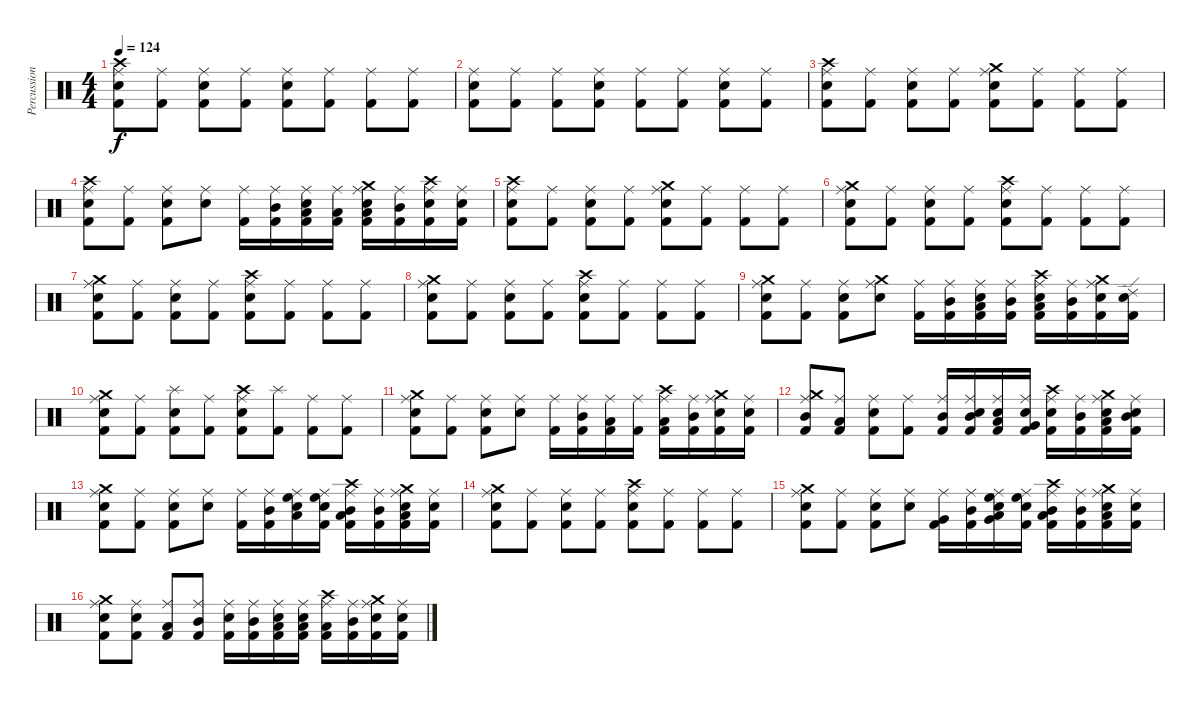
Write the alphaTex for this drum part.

\track ("Percussions" "Percussion") {instrument percussion}
\staff {score}
\articulation defaults
\ts (4 4)
\tempo 124
\clef neutral
\ks c
("Kick (hit) 2" "Electric Snare (hit)" "Crash high (hit)" "Ride (middle)").8{dy f} ("Kick (hit) 2" "Ride (middle)").8 ("Kick (hit) 2" "Electric Snare (hit)" "Ride (middle)").8 ("Kick (hit) 2" "Ride (middle)").8 ("Kick (hit) 2" "Electric Snare (hit)" "Ride (middle)").8 ("Kick (hit) 2" "Ride (middle)").8 ("Kick (hit) 2" "Ride (middle)").8 ("Kick (hit) 2" "Ride (middle)").8 |
("Kick (hit) 2" "Electric Snare (hit)" "Ride (middle)").8 ("Kick (hit) 2" "Ride (middle)").8 ("Kick (hit) 2" "Ride (middle)").8 ("Kick (hit) 2" "Electric Snare (hit)" "Ride (middle)").8 ("Kick (hit) 2" "Ride (middle)").8 ("Kick (hit) 2" "Ride (middle)").8 ("Kick (hit) 2" "Electric Snare (hit)" "Ride (middle)").8 ("Kick (hit) 2" "Ride (middle)").8 |
("Kick (hit) 2" "Electric Snare (hit)" "Crash high (hit)" "Ride (middle)").8 ("Kick (hit) 2" "Ride (middle)").8 ("Kick (hit) 2" "Electric Snare (hit)" "Ride (middle)").8 ("Kick (hit) 2" "Ride (middle)").8 ("Kick (hit) 2" "Electric Snare (hit)" "Crash medium (hit)" "Ride (middle)").8 ("Kick (hit) 2" "Ride (middle)").8 ("Kick (hit) 2" "Ride (middle)").8 ("Kick (hit) 2" "Ride (middle)").8 |
("Kick (hit) 2" "Electric Snare (hit)" "Crash high (hit)" "Ride (middle)").8 ("Kick (hit) 2" "Ride (middle)").8 ("Kick (hit) 2" "Electric Snare (hit)" "Ride (middle)").8 ("Electric Snare (hit)" "Ride (middle)").8 ("Kick (hit) 2" "Ride (middle)").16 ("Kick (hit) 2" "Mid Tom (hit)" "Ride (middle)").16 ("Low Tom (hit)" "Kick (hit) 2" "Electric Snare (hit)" "Ride (middle)").16 ("Kick (hit) 2" "Low Floor Tom (hit)" "Ride (middle)").16 ("Kick (hit) 2" "Low Tom (hit)" "Electric Snare (hit)" "Crash medium (hit)" "Ride (middle)").16 ("Kick (hit) 2" "Mid Tom (hit)" "Ride (middle)").16 ("Kick (hit) 2" "Electric Snare (hit)" "Crash high (hit)" "Ride (middle)").16 ("Kick (hit) 2" "Electric Snare (hit)" "Ride (middle)").16 |
("Kick (hit) 2" "Electric Snare (hit)" "Crash high (hit)" "Ride (middle)").8 ("Kick (hit) 2" "Ride (middle)").8 ("Kick (hit) 2" "Electric Snare (hit)" "Ride (middle)").8 ("Kick (hit) 2" "Ride (middle)").8 ("Kick (hit) 2" "Electric Snare (hit)" "Crash medium (hit)" "Ride (middle)").8 ("Kick (hit) 2" "Ride (middle)").8 ("Kick (hit) 2" "Ride (middle)").8 ("Kick (hit) 2" "Ride (middle)").8 |
("Kick (hit) 2" "Electric Snare (hit)" "Crash medium (hit)" "Ride (middle)").8 ("Kick (hit) 2" "Ride (middle)").8 ("Kick (hit) 2" "Electric Snare (hit)" "Ride (middle)").8 ("Kick (hit) 2" "Ride (middle)").8 ("Kick (hit) 2" "Electric Snare (hit)" "Crash high (hit)" "Ride (middle)").8 ("Kick (hit) 2" "Ride (middle)").8 ("Kick (hit) 2" "Ride (middle)").8 ("Kick (hit) 2" "Ride (middle)").8 |
("Kick (hit) 2" "Electric Snare (hit)" "Crash medium (hit)" "Ride (middle)").8 ("Kick (hit) 2" "Ride (middle)").8 ("Kick (hit) 2" "Electric Snare (hit)" "Ride (middle)").8 ("Kick (hit) 2" "Ride (middle)").8 ("Kick (hit) 2" "Electric Snare (hit)" "Crash high (hit)" "Ride (middle)").8 ("Kick (hit) 2" "Ride (middle)").8 ("Kick (hit) 2" "Ride (middle)").8 ("Kick (hit) 2" "Ride (middle)").8 |
("Kick (hit) 2" "Electric Snare (hit)" "Crash medium (hit)" "Ride (middle)").8 ("Kick (hit) 2" "Ride (middle)").8 ("Kick (hit) 2" "Electric Snare (hit)" "Ride (middle)").8 ("Kick (hit) 2" "Ride (middle)").8 ("Kick (hit) 2" "Electric Snare (hit)" "Crash high (hit)" "Ride (middle)").8 ("Kick (hit) 2" "Ride (middle)").8 ("Kick (hit) 2" "Ride (middle)").8 ("Kick (hit) 2" "Ride (middle)").8 |
("Kick (hit) 2" "Electric Snare (hit)" "Crash medium (hit)" "Ride (middle)").8 ("Kick (hit) 2" "Ride (middle)").8 ("Kick (hit) 2" "Electric Snare (hit)" "Ride (middle)").8 ("Electric Snare (hit)" "Crash medium (hit)" "Ride (middle)").8 ("Kick (hit) 2" "Ride (middle)").16 ("Kick (hit) 2" "Mid Tom (hit)" "Ride (middle)").16 ("Low Tom (hit)" "Kick (hit) 2" "Electric Snare (hit)" "Ride (middle)").16 ("Kick (hit) 2" "Mid Tom (hit)" "Ride (middle)").16 ("Kick (hit) 2" "Low Tom (hit)" "Electric Snare (hit)" "Crash high (hit)" "Ride (middle)").16 ("Kick (hit) 2" "Mid Tom (hit)" "Ride (middle)").16 ("Kick (hit) 2" "Electric Snare (hit)" "Crash medium (hit)" "Ride (middle)").16 ("Kick (hit) 2" "Electric Snare (hit)" "Ride (edge) 2").16 |
("Kick (hit) 2" "Electric Snare (hit)" "Crash medium (hit)" "Ride (middle)").8 ("Kick (hit) 2" "Ride (middle)").8 ("Kick (hit) 2" "Electric Snare (hit)" "Splash (hit)").8 ("Kick (hit) 2" "Ride (middle)").8 ("Kick (hit) 2" "Electric Snare (hit)" "Crash high (hit)" "Ride (middle)").8 ("Kick (hit) 2" "Splash (hit)").8 ("Kick (hit) 2" "Ride (middle)").8 ("Kick (hit) 2" "Ride (middle)").8 |
("Kick (hit) 2" "Electric Snare (hit)" "Crash medium (hit)" "Ride (middle)").8 ("Kick (hit) 2" "Ride (middle)").8 ("Kick (hit) 2" "Electric Snare (hit)" "Ride (middle)").8 ("Electric Snare (hit)" "Ride (middle)").8 ("Kick (hit) 2" "Ride (middle)").16 ("Kick (hit) 2" "Mid Tom (hit)" "Ride (middle)").16 ("Low Tom (hit)" "Kick (hit) 2" "Ride (middle)").16 ("Kick (hit) 2" "Ride (middle)").16 ("Kick (hit) 2" "Low Tom (hit)" "Crash high (hit)" "Ride (middle)").16 ("Kick (hit) 2" "Mid Tom (hit)" "Ride (middle)").16 ("Kick (hit) 2" "Electric Snare (hit)" "Crash medium (hit)" "Ride (middle)").16 ("Kick (hit) 2" "Electric Snare (hit)" "Ride (middle)").16 |
("Kick (hit) 2" "Mid Tom (hit)" "Crash medium (hit)" "Ride (middle)").8 ("Kick (hit) 2" "Low Tom (hit)" "Ride (middle)").8 ("Kick (hit) 2" "Electric Snare (hit)" "Ride (middle)").8 ("Kick (hit) 2" "Ride (middle)").8 ("Kick (hit) 2" "Mid Tom (hit)" "Ride (middle)").16 ("Kick (hit) 2" "Electric Snare (hit)" "Mid Tom (hit)" "Ride (middle)").16 ("Kick (hit) 2" "Low Tom (hit)" "Electric Snare (hit)" "Ride (middle)").16 ("Kick (hit) 2" "Very Low Tom (hit)" "Electric Snare (hit)" "Ride (middle)").16 ("Kick (hit) 2" "Electric Snare (hit)" "Crash high (hit)" "Ride (middle)").16 ("Kick (hit) 2" "Mid Tom (hit)" "Ride (middle)").16 ("Kick (hit) 2" "Low Tom (hit)" "Electric Snare (hit)" "Crash medium (hit)" "Ride (middle)").16 ("Kick (hit) 2" "Mid Tom (hit)" "Electric Snare (hit)" "Ride (middle)").16 |
("Kick (hit) 2" "Electric Snare (hit)" "Crash medium (hit)" "Ride (middle)").8 ("Kick (hit) 2" "Ride (middle)").8 ("Kick (hit) 2" "Electric Snare (hit)" "Ride (middle)").8 ("Electric Snare (hit)" "Ride (middle)").8 ("Kick (hit) 2" "Ride (middle)").16 ("Kick (hit) 2" "Mid Tom (hit)" "Ride (middle)").16 ("Low Tom (hit)" "High Floor Tom (hit)" "Electric Snare (hit)" "Ride (middle)").16 ("Kick (hit) 2" "High Floor Tom (hit)" "Electric Snare (hit)" "Ride (middle)").16 ("Kick (hit) 2" "Low Tom (hit)" "Mid Tom (hit)" "Crash high (hit)" "Ride (middle)").16 ("Kick (hit) 2" "Mid Tom (hit)" "Ride (middle)").16 ("Kick (hit) 2" "Low Tom (hit)" "Electric Snare (hit)" "Crash medium (hit)" "Ride (middle)").16 ("Kick (hit) 2" "Electric Snare (hit)" "Ride (middle)").16 |
("Kick (hit) 2" "Electric Snare (hit)" "Crash medium (hit)" "Ride (middle)").8 ("Kick (hit) 2" "Ride (middle)").8 ("Kick (hit) 2" "Electric Snare (hit)" "Ride (middle)").8 ("Kick (hit) 2" "Ride (middle)").8 ("Kick (hit) 2" "Electric Snare (hit)" "Crash high (hit)" "Ride (middle)").8 ("Kick (hit) 2" "Ride (middle)").8 ("Kick (hit) 2" "Ride (middle)").8 ("Kick (hit) 2" "Ride (middle)").8 |
("Kick (hit) 2" "Electric Snare (hit)" "Crash medium (hit)" "Ride (middle)").8 ("Kick (hit) 2" "Ride (middle)").8 ("Kick (hit) 2" "Electric Snare (hit)" "Ride (middle)").8 ("Electric Snare (hit)" "Ride (middle)").8 ("Very Low Tom (hit)" "Kick (hit) 2" "Ride (middle)").16 ("Kick (hit) 2" "Mid Tom (hit)" "Ride (middle)").16 ("Low Tom (hit)" "High Floor Tom (hit)" "Very Low Tom (hit)" "Electric Snare (hit)" "Ride (middle)").16 ("Kick (hit) 2" "High Floor Tom (hit)" "Electric Snare (hit)" "Ride (middle)").16 ("Kick (hit) 2" "Low Tom (hit)" "Mid Tom (hit)" "Crash high (hit)" "Ride (middle)").16 ("Kick (hit) 2" "Mid Tom (hit)" "Ride (middle)").16 ("Kick (hit) 2" "Low Tom (hit)" "Electric Snare (hit)" "Crash medium (hit)" "Ride (middle)").16 ("Kick (hit) 2" "Electric Snare (hit)" "Ride (middle)").16 |
("Kick (hit) 2" "Electric Snare (hit)" "Crash medium (hit)" "Ride (middle)").8 ("Kick (hit) 2" "Electric Snare (hit)" "Ride (middle)").8 ("Kick (hit) 2" "Low Tom (hit)" "Ride (middle)").8 ("Kick (hit) 2" "Mid Tom (hit)" "Ride (middle)").8 ("Kick (hit) 2" "Electric Snare (hit)" "Ride (middle)").16 ("Kick (hit) 2" "Mid Tom (hit)" "Ride (middle)").16 ("Kick (hit) 2" "Low Tom (hit)" "Electric Snare (hit)" "Ride (middle)").16 ("Kick (hit) 2" "Low Floor Tom (hit)" "Electric Snare (hit)" "Ride (middle)").16 ("Kick (hit) 2" "Low Tom (hit)" "Crash high (hit)" "Ride (middle)").16 ("Kick (hit) 2" "Mid Tom (hit)" "Ride (middle)").16 ("Kick (hit) 2" "Electric Snare (hit)" "Crash medium (hit)" "Ride (middle)").16 ("Kick (hit) 2" "Electric Snare (hit)" "Ride (middle)").16
